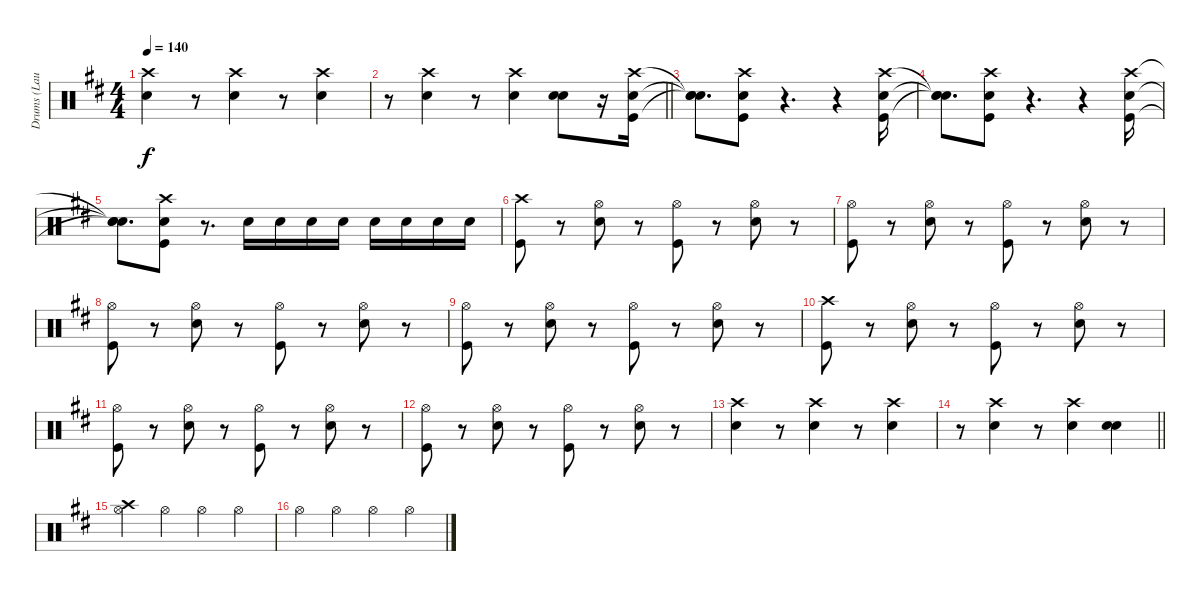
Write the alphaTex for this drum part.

\track ("Drums (Laust Sonne)" "Drums (Lau") {instrument percussion}
\staff {score}
\articulation defaults
\ts (4 4)
\tempo 140
\clef neutral
\ks d
("Crash high (hit)" "Snare (hit) 2").4{dy f} r.8 ("Crash high (hit)" "Snare (hit) 2").4 r.8 ("Crash high (hit)" "Snare (hit) 2").4 |
\barLineRight lightlight
r.8 ("Crash high (hit)" "Snare (hit) 2").4 r.8 ("Crash high (hit)" "Snare (hit) 2").4 ("Snare (hit) 2" "Snare (hit) 2").8 r.16 ("Crash high (hit)" "Snare (hit) 2" "Kick (hit)").16 |
("Snare (hit)"{t} "Snare (hit)"{t} "Snare (hit)"{t}).8{d} ("Crash high (hit)" "Snare (hit) 2" "Kick (hit)").8 r.4{d} r.4 ("Crash high (hit)" "Snare (hit) 2" "Kick (hit)").16 |
("Snare (hit)"{t} "Snare (hit)"{t} "Snare (hit)"{t}).8{d} ("Crash high (hit)" "Snare (hit) 2" "Kick (hit)").8 r.4{d} r.4 ("Crash high (hit)" "Snare (hit) 2" "Kick (hit)").16 |
("Snare (hit)"{t} "Snare (hit)"{t} "Snare (hit)"{t}).8{d} ("Crash high (hit)" "Snare (hit) 2" "Kick (hit)").8 r.8{d} "Snare (hit) 2".16 "Snare (hit) 2".16 "Snare (hit) 2".16 "Snare (hit) 2".16 "Snare (hit) 2".16 "Snare (hit) 2".16 "Snare (hit) 2".16 "Snare (hit) 2".16 |
("Crash high (hit)" "Kick (hit)").8 r.8 ("Hi-Hat (open)" "Snare (hit) 2").8 r.8 ("Hi-Hat (open)" "Kick (hit)").8 r.8 ("Hi-Hat (open)" "Snare (hit) 2").8 r.8 |
("Hi-Hat (open)" "Kick (hit)").8 r.8 ("Hi-Hat (open)" "Snare (hit) 2").8 r.8 ("Hi-Hat (open)" "Kick (hit)").8 r.8 ("Hi-Hat (open)" "Snare (hit) 2").8 r.8 |
("Hi-Hat (open)" "Kick (hit)").8 r.8 ("Hi-Hat (open)" "Snare (hit) 2").8 r.8 ("Hi-Hat (open)" "Kick (hit)").8 r.8 ("Hi-Hat (open)" "Snare (hit) 2").8 r.8 |
("Hi-Hat (open)" "Kick (hit)").8 r.8 ("Hi-Hat (open)" "Snare (hit) 2").8 r.8 ("Hi-Hat (open)" "Kick (hit)").8 r.8 ("Hi-Hat (open)" "Snare (hit) 2").8 r.8 |
("Crash high (hit)" "Kick (hit)").8 r.8 ("Hi-Hat (open)" "Snare (hit) 2").8 r.8 ("Hi-Hat (open)" "Kick (hit)").8 r.8 ("Hi-Hat (open)" "Snare (hit) 2").8 r.8 |
("Hi-Hat (open)" "Kick (hit)").8 r.8 ("Hi-Hat (open)" "Snare (hit) 2").8 r.8 ("Hi-Hat (open)" "Kick (hit)").8 r.8 ("Hi-Hat (open)" "Snare (hit) 2").8 r.8 |
("Hi-Hat (open)" "Kick (hit)").8 r.8 ("Hi-Hat (open)" "Snare (hit) 2").8 r.8 ("Hi-Hat (open)" "Kick (hit)").8 r.8 ("Hi-Hat (open)" "Snare (hit) 2").8 r.8 |
("Crash high (hit)" "Snare (hit) 2").4 r.8 ("Crash high (hit)" "Snare (hit) 2").4 r.8 ("Crash high (hit)" "Snare (hit) 2").4 |
\barLineRight lightlight
r.8 ("Crash high (hit)" "Snare (hit) 2").4 r.8 ("Crash high (hit)" "Snare (hit) 2").4 ("Snare (hit) 2" "Snare (hit) 2").4 |
("Crash high (hit)" "Hi-Hat (open)").4 "Hi-Hat (open)".4 "Hi-Hat (open)".4 "Hi-Hat (open)".4 |
"Hi-Hat (open)".4 "Hi-Hat (open)".4 "Hi-Hat (open)".4 "Hi-Hat (open)".4
